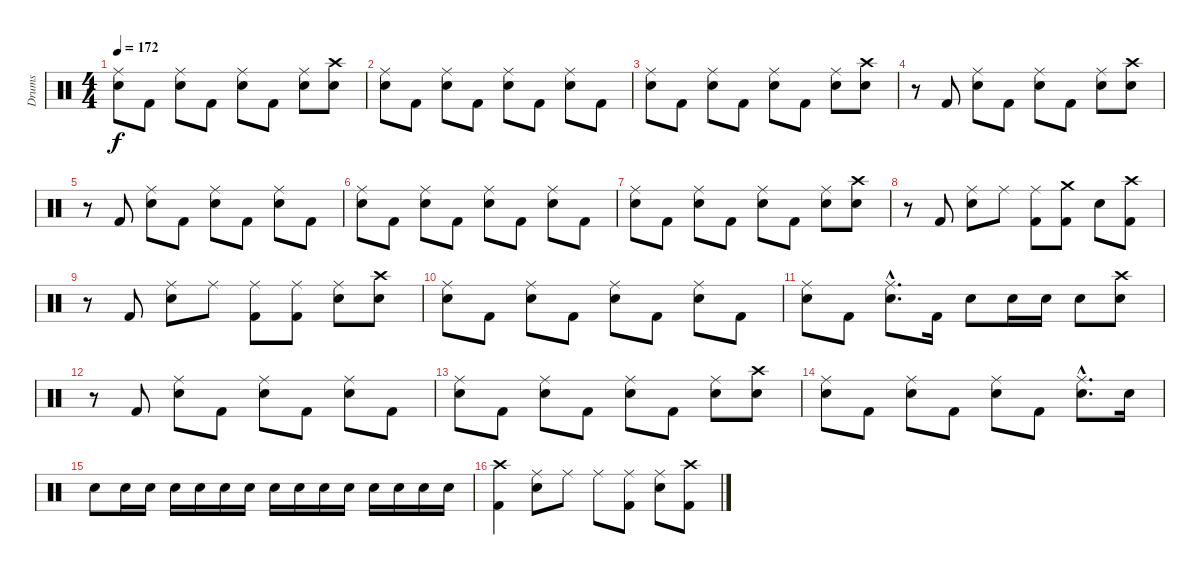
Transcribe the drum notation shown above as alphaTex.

\track ("Drums" "Drums") {instrument percussion}
\staff {score}
\articulation defaults
\ts (4 4)
\tempo 172
\clef neutral
\ks c
("Ride (middle)" "Electric Snare (hit)").8{dy f} "Kick (hit) 2".8 ("Ride (middle)" "Electric Snare (hit)").8 "Kick (hit) 2".8 ("Ride (middle)" "Electric Snare (hit)").8 "Kick (hit) 2".8 ("Ride (middle)" "Electric Snare (hit)").8 ("Crash high (hit)" "Electric Snare (hit)").8 |
("Ride (middle)" "Electric Snare (hit)").8 "Kick (hit) 2".8 ("Ride (middle)" "Electric Snare (hit)").8 "Kick (hit) 2".8 ("Ride (middle)" "Electric Snare (hit)").8 "Kick (hit) 2".8 ("Ride (middle)" "Electric Snare (hit)").8 "Kick (hit) 2".8 |
("Ride (middle)" "Electric Snare (hit)").8 "Kick (hit) 2".8 ("Ride (middle)" "Electric Snare (hit)").8 "Kick (hit) 2".8 ("Ride (middle)" "Electric Snare (hit)").8 "Kick (hit) 2".8 ("Ride (middle)" "Electric Snare (hit)").8 ("Crash high (hit)" "Electric Snare (hit)").8 |
r.8 "Kick (hit) 2".8 ("Ride (middle)" "Electric Snare (hit)").8 "Kick (hit) 2".8 ("Ride (middle)" "Electric Snare (hit)").8 "Kick (hit) 2".8 ("Ride (middle)" "Electric Snare (hit)").8 ("Crash high (hit)" "Electric Snare (hit)").8 |
r.8 "Kick (hit) 2".8 ("Ride (middle)" "Electric Snare (hit)").8 "Kick (hit) 2".8 ("Ride (middle)" "Electric Snare (hit)").8 "Kick (hit) 2".8 ("Ride (middle)" "Electric Snare (hit)").8 "Kick (hit) 2".8 |
("Ride (middle)" "Electric Snare (hit)").8 "Kick (hit) 2".8 ("Ride (middle)" "Electric Snare (hit)").8 "Kick (hit) 2".8 ("Ride (middle)" "Electric Snare (hit)").8 "Kick (hit) 2".8 ("Ride (middle)" "Electric Snare (hit)").8 "Kick (hit) 2".8 |
("Ride (middle)" "Electric Snare (hit)").8 "Kick (hit) 2".8 ("Ride (middle)" "Electric Snare (hit)").8 "Kick (hit) 2".8 ("Ride (middle)" "Electric Snare (hit)").8 "Kick (hit) 2".8 ("Ride (middle)" "Electric Snare (hit)").8 ("Crash high (hit)" "Electric Snare (hit)").8 |
r.8 "Kick (hit) 2".8 ("Ride (middle)" "Electric Snare (hit)").8 "Ride (middle)".8 ("Ride (middle)" "Kick (hit) 2").8 ("Crash medium (hit)" "Kick (hit) 2").8 "Electric Snare (hit)".8 ("Crash high (hit)" "Kick (hit) 2").8 |
r.8 "Kick (hit) 2".8 ("Ride (middle)" "Electric Snare (hit)").8 "Ride (middle)".8 ("Ride (middle)" "Kick (hit) 2").8 ("Ride (middle)" "Kick (hit) 2").8 ("Ride (middle)" "Electric Snare (hit)").8 ("Crash high (hit)" "Electric Snare (hit)").8 |
("Ride (middle)" "Electric Snare (hit)").8 "Kick (hit) 2".8 ("Ride (middle)" "Electric Snare (hit)").8 "Kick (hit) 2".8 ("Ride (middle)" "Electric Snare (hit)").8 "Kick (hit) 2".8 ("Ride (middle)" "Electric Snare (hit)").8 "Kick (hit) 2".8 |
("Ride (middle)" "Electric Snare (hit)").8 "Kick (hit) 2".8 ("Ride (middle)"{hac} "Electric Snare (hit)"{hac}).8{d} "Kick (hit) 2".16 "Electric Snare (hit)".8 "Electric Snare (hit)".16 "Electric Snare (hit)".16 "Electric Snare (hit)".8 ("Crash high (hit)" "Electric Snare (hit)").8 |
r.8 "Kick (hit) 2".8 ("Ride (middle)" "Electric Snare (hit)").8 "Kick (hit) 2".8 ("Ride (middle)" "Electric Snare (hit)").8 "Kick (hit) 2".8 ("Ride (middle)" "Electric Snare (hit)").8 "Kick (hit) 2".8 |
("Ride (middle)" "Electric Snare (hit)").8 "Kick (hit) 2".8 ("Ride (middle)" "Electric Snare (hit)").8 "Kick (hit) 2".8 ("Ride (middle)" "Electric Snare (hit)").8 "Kick (hit) 2".8 ("Ride (middle)" "Electric Snare (hit)").8 ("Crash high (hit)" "Electric Snare (hit)").8 |
("Ride (middle)" "Electric Snare (hit)").8 "Kick (hit) 2".8 ("Ride (middle)" "Electric Snare (hit)").8 "Kick (hit) 2".8 ("Ride (middle)" "Electric Snare (hit)").8 "Kick (hit) 2".8 ("Ride (middle)"{hac} "Electric Snare (hit)"{hac}).8{d} "Electric Snare (hit)".16 |
"Electric Snare (hit)".8 "Electric Snare (hit)".16 "Electric Snare (hit)".16 "Electric Snare (hit)".16 "Electric Snare (hit)".16 "Electric Snare (hit)".16 "Electric Snare (hit)".16 "Electric Snare (hit)".16 "Electric Snare (hit)".16 "Electric Snare (hit)".16 "Electric Snare (hit)".16 "Electric Snare (hit)".16 "Electric Snare (hit)".16 "Electric Snare (hit)".16 "Electric Snare (hit)".16 |
("Crash high (hit)" "Kick (hit) 2").4 ("Ride (middle)" "Electric Snare (hit)").8 "Ride (middle)".8 "Ride (middle)".8 ("Ride (middle)" "Kick (hit) 2").8 ("Ride (middle)" "Electric Snare (hit)").8 ("Crash high (hit)" "Kick (hit) 2").8
